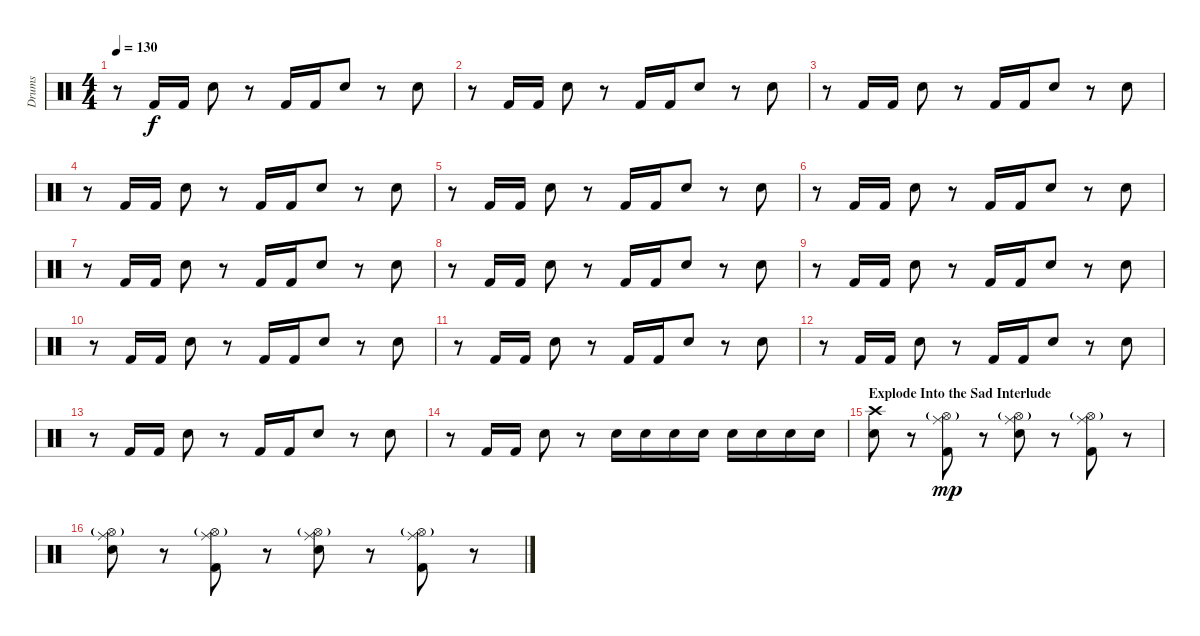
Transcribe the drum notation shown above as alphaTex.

\track ("Drums" "Drums") {instrument percussion}
\staff {score}
\articulation defaults
\ts (4 4)
\tempo 130
\clef neutral
\ks c
r.8{dy f} "Kick (hit) 2".16 "Kick (hit) 2".16 "Electric Snare (hit)".8 r.8 "Kick (hit) 2".16 "Kick (hit) 2".16 "Electric Snare (hit)".8 r.8 "Electric Snare (hit)".8 |
r.8 "Kick (hit) 2".16 "Kick (hit) 2".16 "Electric Snare (hit)".8 r.8 "Kick (hit) 2".16 "Kick (hit) 2".16 "Electric Snare (hit)".8 r.8 "Electric Snare (hit)".8 |
r.8 "Kick (hit) 2".16 "Kick (hit) 2".16 "Electric Snare (hit)".8 r.8 "Kick (hit) 2".16 "Kick (hit) 2".16 "Electric Snare (hit)".8 r.8 "Electric Snare (hit)".8 |
r.8 "Kick (hit) 2".16 "Kick (hit) 2".16 "Electric Snare (hit)".8 r.8 "Kick (hit) 2".16 "Kick (hit) 2".16 "Electric Snare (hit)".8 r.8 "Electric Snare (hit)".8 |
r.8 "Kick (hit) 2".16 "Kick (hit) 2".16 "Electric Snare (hit)".8 r.8 "Kick (hit) 2".16 "Kick (hit) 2".16 "Electric Snare (hit)".8 r.8 "Electric Snare (hit)".8 |
r.8 "Kick (hit) 2".16 "Kick (hit) 2".16 "Electric Snare (hit)".8 r.8 "Kick (hit) 2".16 "Kick (hit) 2".16 "Electric Snare (hit)".8 r.8 "Electric Snare (hit)".8 |
r.8 "Kick (hit) 2".16 "Kick (hit) 2".16 "Electric Snare (hit)".8 r.8 "Kick (hit) 2".16 "Kick (hit) 2".16 "Electric Snare (hit)".8 r.8 "Electric Snare (hit)".8 |
r.8 "Kick (hit) 2".16 "Kick (hit) 2".16 "Electric Snare (hit)".8 r.8 "Kick (hit) 2".16 "Kick (hit) 2".16 "Electric Snare (hit)".8 r.8 "Electric Snare (hit)".8 |
r.8 "Kick (hit) 2".16 "Kick (hit) 2".16 "Electric Snare (hit)".8 r.8 "Kick (hit) 2".16 "Kick (hit) 2".16 "Electric Snare (hit)".8 r.8 "Electric Snare (hit)".8 |
r.8 "Kick (hit) 2".16 "Kick (hit) 2".16 "Electric Snare (hit)".8 r.8 "Kick (hit) 2".16 "Kick (hit) 2".16 "Electric Snare (hit)".8 r.8 "Electric Snare (hit)".8 |
r.8 "Kick (hit) 2".16 "Kick (hit) 2".16 "Electric Snare (hit)".8 r.8 "Kick (hit) 2".16 "Kick (hit) 2".16 "Electric Snare (hit)".8 r.8 "Electric Snare (hit)".8 |
r.8 "Kick (hit) 2".16 "Kick (hit) 2".16 "Electric Snare (hit)".8 r.8 "Kick (hit) 2".16 "Kick (hit) 2".16 "Electric Snare (hit)".8 r.8 "Electric Snare (hit)".8 |
r.8 "Kick (hit) 2".16 "Kick (hit) 2".16 "Electric Snare (hit)".8 r.8 "Kick (hit) 2".16 "Kick (hit) 2".16 "Electric Snare (hit)".8 r.8 "Electric Snare (hit)".8 |
r.8 "Kick (hit) 2".16 "Kick (hit) 2".16 "Electric Snare (hit)".8 r.8 "Electric Snare (hit)".16 "Electric Snare (hit)".16 "Electric Snare (hit)".16 "Electric Snare (hit)".16 "Electric Snare (hit)".16 "Electric Snare (hit)".16 "Electric Snare (hit)".16 "Electric Snare (hit)".16 |
\section ("" "Explode Into the Sad Interlude")
("Crash high (hit)" "Electric Snare (hit)").8 r.8 ("Ride (middle)" "Hi-Hat (open)"{g} "Kick (hit) 2").8{dy mp} r.8 ("Ride (middle)" "Hi-Hat (open)"{g} "Electric Snare (hit)").8 r.8 ("Ride (middle)" "Hi-Hat (open)"{g} "Kick (hit) 2").8 r.8 |
("Ride (middle)" "Hi-Hat (open)"{g} "Electric Snare (hit)").8 r.8 ("Ride (middle)" "Hi-Hat (open)"{g} "Kick (hit) 2").8 r.8 ("Ride (middle)" "Hi-Hat (open)"{g} "Electric Snare (hit)").8 r.8 ("Ride (middle)" "Hi-Hat (open)"{g} "Kick (hit) 2").8 r.8
